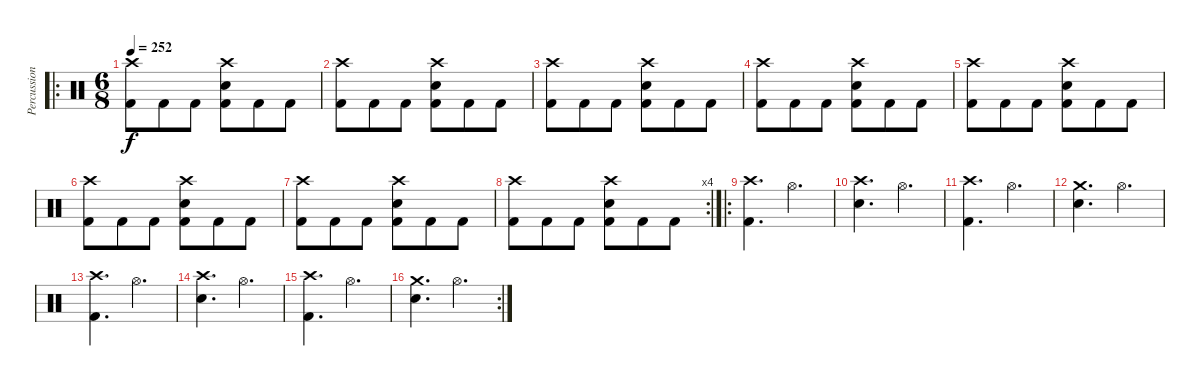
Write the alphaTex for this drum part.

\track ("Percussion" "Percussion") {instrument percussion}
\staff {score}
\articulation defaults
\ro
\ts (6 8)
\tempo 252
\clef neutral
\ks c
("Crash high (hit)" "Kick (hit) 2").8{dy f} "Kick (hit) 2".8 "Kick (hit) 2".8 ("Crash high (hit)" "Electric Snare (hit)" "Kick (hit) 2").8 "Kick (hit) 2".8 "Kick (hit) 2".8 |
("Crash high (hit)" "Kick (hit) 2").8 "Kick (hit) 2".8 "Kick (hit) 2".8 ("Crash high (hit)" "Electric Snare (hit)" "Kick (hit) 2").8 "Kick (hit) 2".8 "Kick (hit) 2".8 |
("Crash high (hit)" "Kick (hit) 2").8 "Kick (hit) 2".8 "Kick (hit) 2".8 ("Crash high (hit)" "Electric Snare (hit)" "Kick (hit) 2").8 "Kick (hit) 2".8 "Kick (hit) 2".8 |
("Crash high (hit)" "Kick (hit) 2").8 "Kick (hit) 2".8 "Kick (hit) 2".8 ("Crash high (hit)" "Electric Snare (hit)" "Kick (hit) 2").8 "Kick (hit) 2".8 "Kick (hit) 2".8 |
("Crash high (hit)" "Kick (hit) 2").8 "Kick (hit) 2".8 "Kick (hit) 2".8 ("Crash high (hit)" "Electric Snare (hit)" "Kick (hit) 2").8 "Kick (hit) 2".8 "Kick (hit) 2".8 |
("Crash high (hit)" "Kick (hit) 2").8 "Kick (hit) 2".8 "Kick (hit) 2".8 ("Crash high (hit)" "Electric Snare (hit)" "Kick (hit) 2").8 "Kick (hit) 2".8 "Kick (hit) 2".8 |
("Crash high (hit)" "Kick (hit) 2").8 "Kick (hit) 2".8 "Kick (hit) 2".8 ("Crash high (hit)" "Electric Snare (hit)" "Kick (hit) 2").8 "Kick (hit) 2".8 "Kick (hit) 2".8 |
\rc 4
("Crash high (hit)" "Kick (hit) 2").8 "Kick (hit) 2".8 "Kick (hit) 2".8 ("Crash high (hit)" "Electric Snare (hit)" "Kick (hit) 2").8 "Kick (hit) 2".8 "Kick (hit) 2".8 |
\ro
("Crash high (hit)" "Kick (hit) 2").4{d} "Hi-Hat (open)".4{d} |
("Crash high (hit)" "Electric Snare (hit)").4{d} "Hi-Hat (open)".4{d} |
("Crash high (hit)" "Kick (hit) 2").4{d} "Hi-Hat (open)".4{d} |
("Crash medium (hit)" "Electric Snare (hit)").4{d} "Hi-Hat (open)".4{d} |
("Crash high (hit)" "Kick (hit) 2").4{d} "Hi-Hat (open)".4{d} |
("Crash high (hit)" "Electric Snare (hit)").4{d} "Hi-Hat (open)".4{d} |
("Crash high (hit)" "Kick (hit) 2").4{d} "Hi-Hat (open)".4{d} |
\rc 2
("Crash medium (hit)" "Electric Snare (hit)").4{d} "Hi-Hat (open)".4{d}
